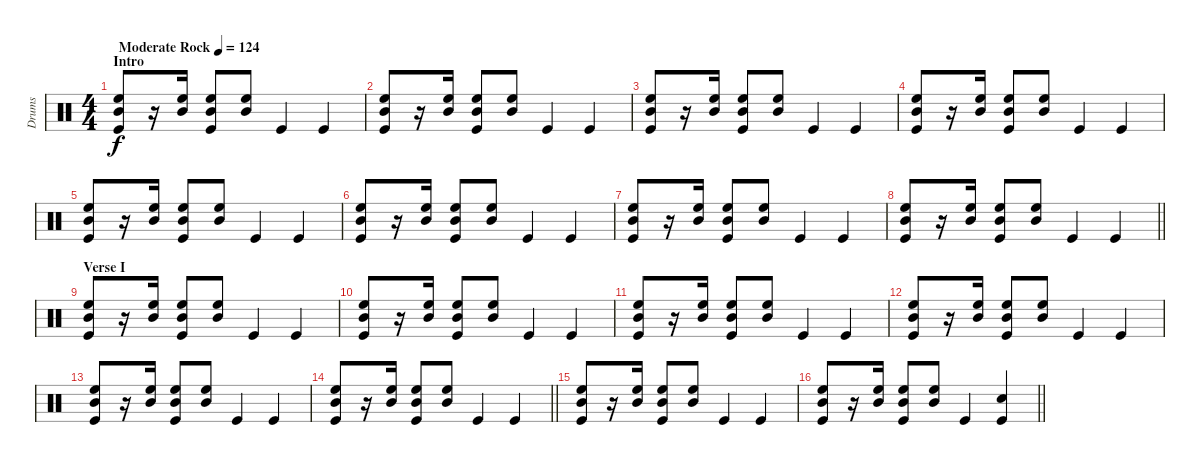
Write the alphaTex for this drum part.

\track ("Drums" "Drums") {instrument percussion}
\staff {score}
\articulation defaults
\ts (4 4)
\section ("" "Intro")
\tempo (124 "Moderate Rock")
\clef neutral
\ks c
("High Floor Tom (hit)" "Mid Tom (hit)" "Kick (hit)").8{dy f} r.16 ("High Floor Tom (hit)" "Mid Tom (hit)").16 ("High Floor Tom (hit)" "Mid Tom (hit)" "Kick (hit)").8 ("High Floor Tom (hit)" "Mid Tom (hit)").8 "Kick (hit)".4 "Kick (hit)".4 |
("High Floor Tom (hit)" "Mid Tom (hit)" "Kick (hit)").8 r.16 ("High Floor Tom (hit)" "Mid Tom (hit)").16 ("High Floor Tom (hit)" "Mid Tom (hit)" "Kick (hit)").8 ("High Floor Tom (hit)" "Mid Tom (hit)").8 "Kick (hit)".4 "Kick (hit)".4 |
("High Floor Tom (hit)" "Mid Tom (hit)" "Kick (hit)").8 r.16 ("High Floor Tom (hit)" "Mid Tom (hit)").16 ("High Floor Tom (hit)" "Mid Tom (hit)" "Kick (hit)").8 ("High Floor Tom (hit)" "Mid Tom (hit)").8 "Kick (hit)".4 "Kick (hit)".4 |
("High Floor Tom (hit)" "Mid Tom (hit)" "Kick (hit)").8 r.16 ("High Floor Tom (hit)" "Mid Tom (hit)").16 ("High Floor Tom (hit)" "Mid Tom (hit)" "Kick (hit)").8 ("High Floor Tom (hit)" "Mid Tom (hit)").8 "Kick (hit)".4 "Kick (hit)".4 |
("High Floor Tom (hit)" "Mid Tom (hit)" "Kick (hit)").8 r.16 ("High Floor Tom (hit)" "Mid Tom (hit)").16 ("High Floor Tom (hit)" "Mid Tom (hit)" "Kick (hit)").8 ("High Floor Tom (hit)" "Mid Tom (hit)").8 "Kick (hit)".4 "Kick (hit)".4 |
("High Floor Tom (hit)" "Mid Tom (hit)" "Kick (hit)").8 r.16 ("High Floor Tom (hit)" "Mid Tom (hit)").16 ("High Floor Tom (hit)" "Mid Tom (hit)" "Kick (hit)").8 ("High Floor Tom (hit)" "Mid Tom (hit)").8 "Kick (hit)".4 "Kick (hit)".4 |
("High Floor Tom (hit)" "Mid Tom (hit)" "Kick (hit)").8 r.16 ("High Floor Tom (hit)" "Mid Tom (hit)").16 ("High Floor Tom (hit)" "Mid Tom (hit)" "Kick (hit)").8 ("High Floor Tom (hit)" "Mid Tom (hit)").8 "Kick (hit)".4 "Kick (hit)".4 |
\barLineRight lightlight
("High Floor Tom (hit)" "Mid Tom (hit)" "Kick (hit)").8 r.16 ("High Floor Tom (hit)" "Mid Tom (hit)").16 ("High Floor Tom (hit)" "Mid Tom (hit)" "Kick (hit)").8 ("High Floor Tom (hit)" "Mid Tom (hit)").8 "Kick (hit)".4 "Kick (hit)".4 |
\section ("" "Verse I")
("High Floor Tom (hit)" "Mid Tom (hit)" "Kick (hit)").8 r.16 ("High Floor Tom (hit)" "Mid Tom (hit)").16 ("High Floor Tom (hit)" "Mid Tom (hit)" "Kick (hit)").8 ("High Floor Tom (hit)" "Mid Tom (hit)").8 "Kick (hit)".4 "Kick (hit)".4 |
("High Floor Tom (hit)" "Mid Tom (hit)" "Kick (hit)").8 r.16 ("High Floor Tom (hit)" "Mid Tom (hit)").16 ("High Floor Tom (hit)" "Mid Tom (hit)" "Kick (hit)").8 ("High Floor Tom (hit)" "Mid Tom (hit)").8 "Kick (hit)".4 "Kick (hit)".4 |
("High Floor Tom (hit)" "Mid Tom (hit)" "Kick (hit)").8 r.16 ("High Floor Tom (hit)" "Mid Tom (hit)").16 ("High Floor Tom (hit)" "Mid Tom (hit)" "Kick (hit)").8 ("High Floor Tom (hit)" "Mid Tom (hit)").8 "Kick (hit)".4 "Kick (hit)".4 |
("High Floor Tom (hit)" "Mid Tom (hit)" "Kick (hit)").8 r.16 ("High Floor Tom (hit)" "Mid Tom (hit)").16 ("High Floor Tom (hit)" "Mid Tom (hit)" "Kick (hit)").8 ("High Floor Tom (hit)" "Mid Tom (hit)").8 "Kick (hit)".4 "Kick (hit)".4 |
("High Floor Tom (hit)" "Mid Tom (hit)" "Kick (hit)").8 r.16 ("High Floor Tom (hit)" "Mid Tom (hit)").16 ("High Floor Tom (hit)" "Mid Tom (hit)" "Kick (hit)").8 ("High Floor Tom (hit)" "Mid Tom (hit)").8 "Kick (hit)".4 "Kick (hit)".4 |
\barLineRight lightlight
("High Floor Tom (hit)" "Mid Tom (hit)" "Kick (hit)").8 r.16 ("High Floor Tom (hit)" "Mid Tom (hit)").16 ("High Floor Tom (hit)" "Mid Tom (hit)" "Kick (hit)").8 ("High Floor Tom (hit)" "Mid Tom (hit)").8 "Kick (hit)".4 "Kick (hit)".4 |
("High Floor Tom (hit)" "Mid Tom (hit)" "Kick (hit)").8 r.16 ("High Floor Tom (hit)" "Mid Tom (hit)").16 ("High Floor Tom (hit)" "Mid Tom (hit)" "Kick (hit)").8 ("High Floor Tom (hit)" "Mid Tom (hit)").8 "Kick (hit)".4 "Kick (hit)".4 |
\barLineRight lightlight
("High Floor Tom (hit)" "Mid Tom (hit)" "Kick (hit)").8 r.16 ("High Floor Tom (hit)" "Mid Tom (hit)").16 ("High Floor Tom (hit)" "Mid Tom (hit)" "Kick (hit)").8 ("High Floor Tom (hit)" "Mid Tom (hit)").8 "Kick (hit)".4 ("Electric Snare (hit)" "Kick (hit)").4
